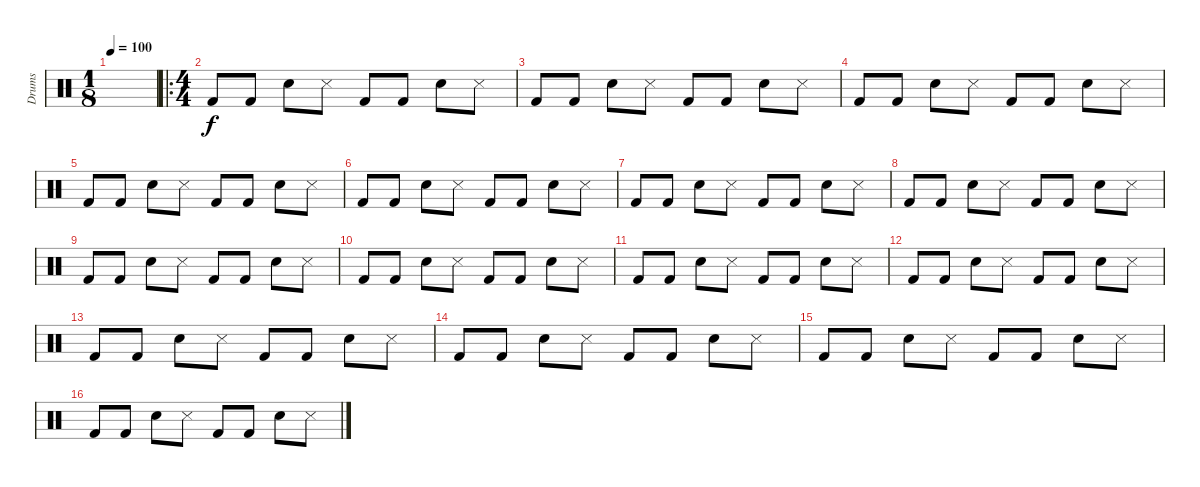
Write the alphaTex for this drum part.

\track ("Drums" "Drums") {instrument percussion}
\staff {score}
\articulation defaults
\ts (1 8)
\tempo 100
\clef neutral
\ks c
|
\ro
\ts (4 4)
"Kick (hit) 2".8 "Kick (hit) 2".8 "Snare (hit) 2".8 "Snare (side stick) 3".8 "Kick (hit) 2".8 "Kick (hit) 2".8 "Snare (hit) 2".8 "Snare (side stick) 3".8 |
"Kick (hit) 2".8 "Kick (hit) 2".8 "Snare (hit) 2".8 "Snare (side stick) 3".8 "Kick (hit) 2".8 "Kick (hit) 2".8 "Snare (hit) 2".8 "Snare (side stick) 3".8 |
"Kick (hit) 2".8 "Kick (hit) 2".8 "Snare (hit) 2".8 "Snare (side stick) 3".8 "Kick (hit) 2".8 "Kick (hit) 2".8 "Snare (hit) 2".8 "Snare (side stick) 3".8 |
"Kick (hit) 2".8 "Kick (hit) 2".8 "Snare (hit) 2".8 "Snare (side stick) 3".8 "Kick (hit) 2".8 "Kick (hit) 2".8 "Snare (hit) 2".8 "Snare (side stick) 3".8 |
"Kick (hit) 2".8 "Kick (hit) 2".8 "Snare (hit) 2".8 "Snare (side stick) 3".8 "Kick (hit) 2".8 "Kick (hit) 2".8 "Snare (hit) 2".8 "Snare (side stick) 3".8 |
"Kick (hit) 2".8 "Kick (hit) 2".8 "Snare (hit) 2".8 "Snare (side stick) 3".8 "Kick (hit) 2".8 "Kick (hit) 2".8 "Snare (hit) 2".8 "Snare (side stick) 3".8 |
"Kick (hit) 2".8 "Kick (hit) 2".8 "Snare (hit) 2".8 "Snare (side stick) 3".8 "Kick (hit) 2".8 "Kick (hit) 2".8 "Snare (hit) 2".8 "Snare (side stick) 3".8 |
"Kick (hit) 2".8 "Kick (hit) 2".8 "Snare (hit) 2".8 "Snare (side stick) 3".8 "Kick (hit) 2".8 "Kick (hit) 2".8 "Snare (hit) 2".8 "Snare (side stick) 3".8 |
"Kick (hit) 2".8 "Kick (hit) 2".8 "Snare (hit) 2".8 "Snare (side stick) 3".8 "Kick (hit) 2".8 "Kick (hit) 2".8 "Snare (hit) 2".8 "Snare (side stick) 3".8 |
"Kick (hit) 2".8 "Kick (hit) 2".8 "Snare (hit) 2".8 "Snare (side stick) 3".8 "Kick (hit) 2".8 "Kick (hit) 2".8 "Snare (hit) 2".8 "Snare (side stick) 3".8 |
"Kick (hit) 2".8 "Kick (hit) 2".8 "Snare (hit) 2".8 "Snare (side stick) 3".8 "Kick (hit) 2".8 "Kick (hit) 2".8 "Snare (hit) 2".8 "Snare (side stick) 3".8 |
"Kick (hit) 2".8 "Kick (hit) 2".8 "Snare (hit) 2".8 "Snare (side stick) 3".8 "Kick (hit) 2".8 "Kick (hit) 2".8 "Snare (hit) 2".8 "Snare (side stick) 3".8 |
"Kick (hit) 2".8 "Kick (hit) 2".8 "Snare (hit) 2".8 "Snare (side stick) 3".8 "Kick (hit) 2".8 "Kick (hit) 2".8 "Snare (hit) 2".8 "Snare (side stick) 3".8 |
"Kick (hit) 2".8 "Kick (hit) 2".8 "Snare (hit) 2".8 "Snare (side stick) 3".8 "Kick (hit) 2".8 "Kick (hit) 2".8 "Snare (hit) 2".8 "Snare (side stick) 3".8 |
"Kick (hit) 2".8 "Kick (hit) 2".8 "Snare (hit) 2".8 "Snare (side stick) 3".8 "Kick (hit) 2".8 "Kick (hit) 2".8 "Snare (hit) 2".8 "Snare (side stick) 3".8
